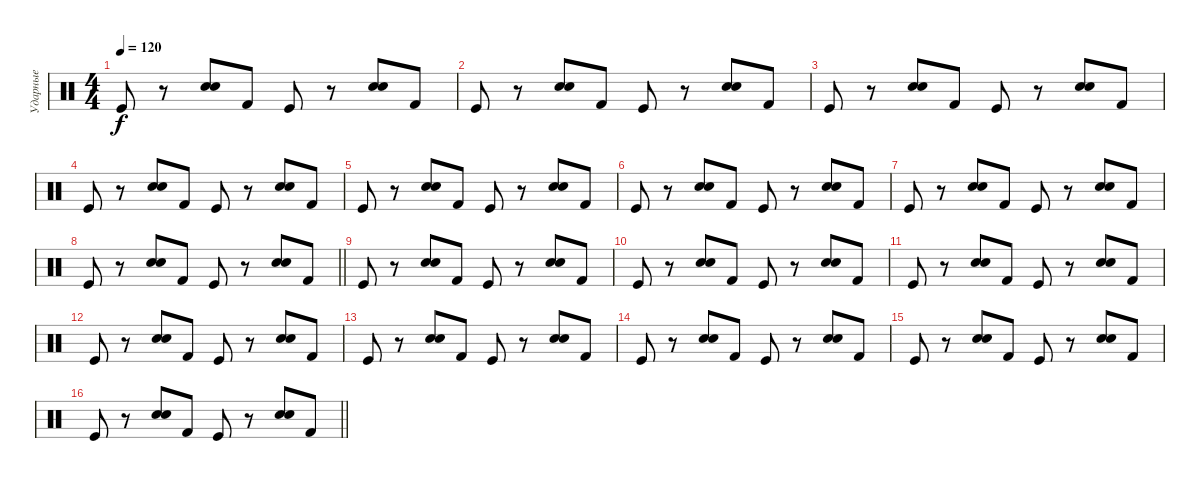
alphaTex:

\track ("Ударные" "Ударные") {instrument percussion}
\staff {score}
\articulation defaults
\ts (4 4)
\tempo 120
\clef neutral
\ks c "Kick (hit)".8{dy f}
r.8 ("Electric Snare (hit)" "Snare (hit) 2").8 "Kick (hit) 2".8 "Kick (hit)".8 r.8 ("Electric Snare (hit)" "Snare (hit) 2").8 "Kick (hit) 2".8 |
"Kick (hit)".8 r.8 ("Electric Snare (hit)" "Snare (hit) 2").8 "Kick (hit) 2".8 "Kick (hit)".8 r.8 ("Electric Snare (hit)" "Snare (hit) 2").8 "Kick (hit) 2".8 |
"Kick (hit)".8 r.8 ("Electric Snare (hit)" "Snare (hit) 2").8 "Kick (hit) 2".8 "Kick (hit)".8 r.8 ("Electric Snare (hit)" "Snare (hit) 2").8 "Kick (hit) 2".8 |
"Kick (hit)".8 r.8 ("Electric Snare (hit)" "Snare (hit) 2").8 "Kick (hit) 2".8 "Kick (hit)".8 r.8 ("Electric Snare (hit)" "Snare (hit) 2").8 "Kick (hit) 2".8 |
"Kick (hit)".8 r.8 ("Electric Snare (hit)" "Snare (hit) 2").8 "Kick (hit) 2".8 "Kick (hit)".8 r.8 ("Electric Snare (hit)" "Snare (hit) 2").8 "Kick (hit) 2".8 |
"Kick (hit)".8 r.8 ("Electric Snare (hit)" "Snare (hit) 2").8 "Kick (hit) 2".8 "Kick (hit)".8 r.8 ("Electric Snare (hit)" "Snare (hit) 2").8 "Kick (hit) 2".8 |
"Kick (hit)".8 r.8 ("Electric Snare (hit)" "Snare (hit) 2").8 "Kick (hit) 2".8 "Kick (hit)".8 r.8 ("Electric Snare (hit)" "Snare (hit) 2").8 "Kick (hit) 2".8 |
\barLineRight lightlight "Kick (hit)".8
r.8 ("Electric Snare (hit)" "Snare (hit) 2").8 "Kick (hit) 2".8 "Kick (hit)".8 r.8 ("Electric Snare (hit)" "Snare (hit) 2").8 "Kick (hit) 2".8 |
"Kick (hit)".8 r.8 ("Electric Snare (hit)" "Snare (hit) 2").8 "Kick (hit) 2".8 "Kick (hit)".8 r.8 ("Electric Snare (hit)" "Snare (hit) 2").8 "Kick (hit) 2".8 |
"Kick (hit)".8 r.8 ("Electric Snare (hit)" "Snare (hit) 2").8 "Kick (hit) 2".8 "Kick (hit)".8 r.8 ("Electric Snare (hit)" "Snare (hit) 2").8 "Kick (hit) 2".8 |
"Kick (hit)".8 r.8 ("Electric Snare (hit)" "Snare (hit) 2").8 "Kick (hit) 2".8 "Kick (hit)".8 r.8 ("Electric Snare (hit)" "Snare (hit) 2").8 "Kick (hit) 2".8 |
"Kick (hit)".8 r.8 ("Electric Snare (hit)" "Snare (hit) 2").8 "Kick (hit) 2".8 "Kick (hit)".8 r.8 ("Electric Snare (hit)" "Snare (hit) 2").8 "Kick (hit) 2".8 |
"Kick (hit)".8 r.8 ("Electric Snare (hit)" "Snare (hit) 2").8 "Kick (hit) 2".8 "Kick (hit)".8 r.8 ("Electric Snare (hit)" "Snare (hit) 2").8 "Kick (hit) 2".8 |
"Kick (hit)".8 r.8 ("Electric Snare (hit)" "Snare (hit) 2").8 "Kick (hit) 2".8 "Kick (hit)".8 r.8 ("Electric Snare (hit)" "Snare (hit) 2").8 "Kick (hit) 2".8 |
"Kick (hit)".8 r.8 ("Electric Snare (hit)" "Snare (hit) 2").8 "Kick (hit) 2".8 "Kick (hit)".8 r.8 ("Electric Snare (hit)" "Snare (hit) 2").8 "Kick (hit) 2".8 |
\barLineRight lightlight "Kick (hit)".8
r.8 ("Electric Snare (hit)" "Snare (hit) 2").8 "Kick (hit) 2".8 "Kick (hit)".8 r.8 ("Electric Snare (hit)" "Snare (hit) 2").8 "Kick (hit) 2".8
